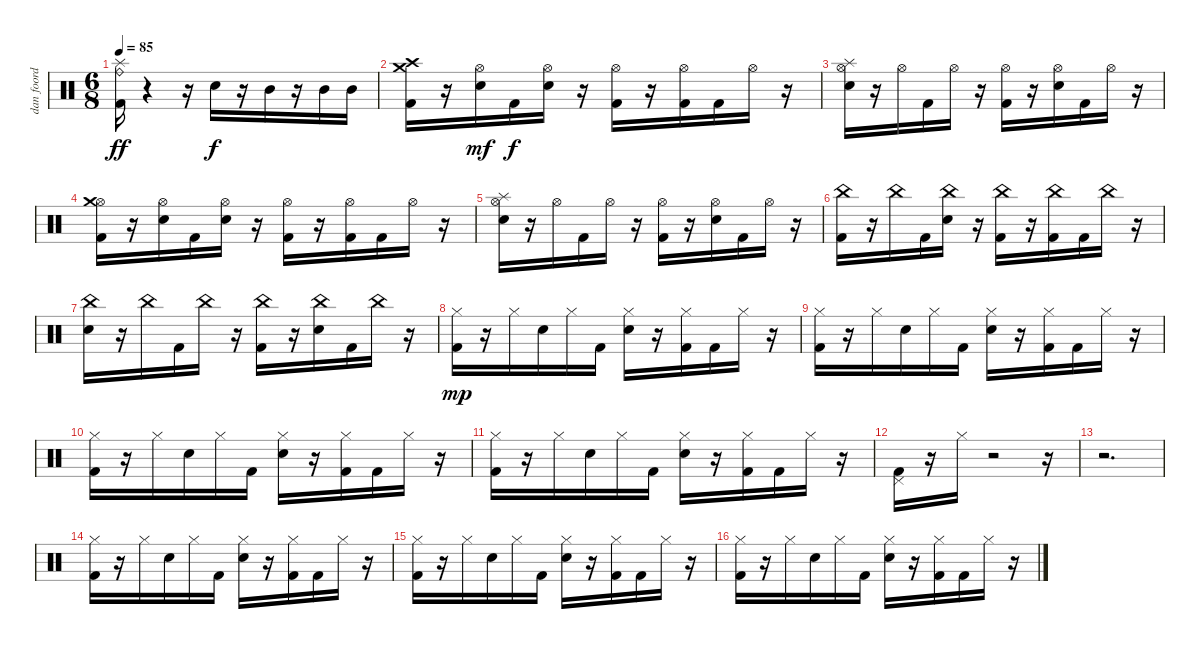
\track ("dan foord" "dan foord") {instrument percussion}
\staff {score}
\articulation defaults
\ts (6 8)
\tempo 85
\clef neutral
\ks c
("Kick (hit) 2" "Ride (bell)" "Splash (hit)").16{dy ff} r.4 r.16 "Snare (hit) 2".16{dy f} r.16 "Mid Tom (hit)".16 r.16 "Mid Tom (hit)".16 "Mid Tom (hit)".16 |
("Kick (hit) 2" "Crash high (hit)" "Crash medium (hit)").16 r.16 ("Snare (hit) 2" "Hi-Hat (open)").16{dy mf} "Kick (hit) 2".16{dy f} ("Snare (hit) 2" "Hi-Hat (open)").16 r.16 ("Kick (hit) 2" "Hi-Hat (open)").16 r.16 ("Kick (hit) 2" "Hi-Hat (open)").16 "Kick (hit) 2".16 "Hi-Hat (open)".16 r.16 |
("Snare (hit) 2" "Hi-Hat (open)" "Splash (hit)").16 r.16 "Hi-Hat (open)".16 "Kick (hit) 2".16 "Hi-Hat (open)".16 r.16 ("Kick (hit) 2" "Hi-Hat (open)").16 r.16 ("Snare (hit) 2" "Hi-Hat (open)").16 "Kick (hit) 2".16 "Hi-Hat (open)".16 r.16 |
("Kick (hit) 2" "Hi-Hat (open)" "Crash medium (hit)").16 r.16 ("Snare (hit) 2" "Hi-Hat (open)").16 "Kick (hit) 2".16 ("Snare (hit) 2" "Hi-Hat (open)").16 r.16 ("Kick (hit) 2" "Hi-Hat (open)").16 r.16 ("Kick (hit) 2" "Hi-Hat (open)").16 "Kick (hit) 2".16 "Hi-Hat (open)".16 r.16 |
("Snare (hit) 2" "Hi-Hat (open)" "Splash (hit)").16 r.16 "Hi-Hat (open)".16 "Kick (hit) 2".16 "Hi-Hat (open)".16 r.16 ("Kick (hit) 2" "Hi-Hat (open)").16 r.16 ("Snare (hit) 2" "Hi-Hat (open)").16 "Kick (hit) 2".16 "Hi-Hat (open)".16 r.16 |
("Kick (hit) 2" "China (hit)").16 r.16 "China (hit)".16 "Kick (hit) 2".16 ("Snare (hit) 2" "China (hit)").16 r.16 ("Kick (hit) 2" "China (hit)").16 r.16 ("Kick (hit) 2" "China (hit)").16 "Kick (hit) 2".16 "China (hit)".16 r.16 |
("Snare (hit) 2" "China (hit)").16 r.16 "China (hit)".16 "Kick (hit) 2".16 "China (hit)".16 r.16 ("Kick (hit) 2" "China (hit)").16 r.16 ("Snare (hit) 2" "China (hit)").16 "Kick (hit) 2".16 "China (hit)".16 r.16 |
("Kick (hit) 2" "Hi-Hat (closed)").16{dy mp} r.16 "Hi-Hat (closed)".16 "Snare (hit) 2".16 "Hi-Hat (closed)".16 "Kick (hit) 2".16 ("Snare (hit) 2" "Hi-Hat (closed)").16 r.16 ("Kick (hit) 2" "Hi-Hat (closed)").16 "Kick (hit) 2".16 "Hi-Hat (closed)".16 r.16 |
("Kick (hit) 2" "Hi-Hat (closed)").16 r.16 "Hi-Hat (closed)".16 "Snare (hit) 2".16 "Hi-Hat (closed)".16 "Kick (hit) 2".16 ("Snare (hit) 2" "Hi-Hat (closed)").16 r.16 ("Kick (hit) 2" "Hi-Hat (closed)").16 "Kick (hit) 2".16 "Hi-Hat (closed)".16 r.16 |
("Kick (hit) 2" "Hi-Hat (closed)").16 r.16 "Hi-Hat (closed)".16 "Snare (hit) 2".16 "Hi-Hat (closed)".16 "Kick (hit) 2".16 ("Snare (hit) 2" "Hi-Hat (closed)").16 r.16 ("Kick (hit) 2" "Hi-Hat (closed)").16 "Kick (hit) 2".16 "Hi-Hat (closed)".16 r.16 |
("Kick (hit) 2" "Hi-Hat (closed)").16 r.16 "Hi-Hat (closed)".16 "Snare (hit) 2".16 "Hi-Hat (closed)".16 "Kick (hit) 2".16 ("Snare (hit) 2" "Hi-Hat (closed)").16 r.16 ("Kick (hit) 2" "Hi-Hat (closed)").16 "Kick (hit) 2".16 "Hi-Hat (closed)".16 r.16 |
("Kick (hit) 2" "Pedal Hi-Hat (hit)").16 r.16 "Hi-Hat (closed)".16 r.2 r.16 |
r.2{d} |
("Kick (hit) 2" "Hi-Hat (closed)").16 r.16 "Hi-Hat (closed)".16 "Snare (hit) 2".16 "Hi-Hat (closed)".16 "Kick (hit) 2".16 ("Snare (hit) 2" "Hi-Hat (closed)").16 r.16 ("Kick (hit) 2" "Hi-Hat (closed)").16 "Kick (hit) 2".16 "Hi-Hat (closed)".16 r.16 |
("Kick (hit) 2" "Hi-Hat (closed)").16 r.16 "Hi-Hat (closed)".16 "Snare (hit) 2".16 "Hi-Hat (closed)".16 "Kick (hit) 2".16 ("Snare (hit) 2" "Hi-Hat (closed)").16 r.16 ("Kick (hit) 2" "Hi-Hat (closed)").16 "Kick (hit) 2".16 "Hi-Hat (closed)".16 r.16 |
("Kick (hit) 2" "Hi-Hat (closed)").16 r.16 "Hi-Hat (closed)".16 "Snare (hit) 2".16 "Hi-Hat (closed)".16 "Kick (hit) 2".16 ("Snare (hit) 2" "Hi-Hat (closed)").16 r.16 ("Kick (hit) 2" "Hi-Hat (closed)").16 "Kick (hit) 2".16 "Hi-Hat (closed)".16 r.16
